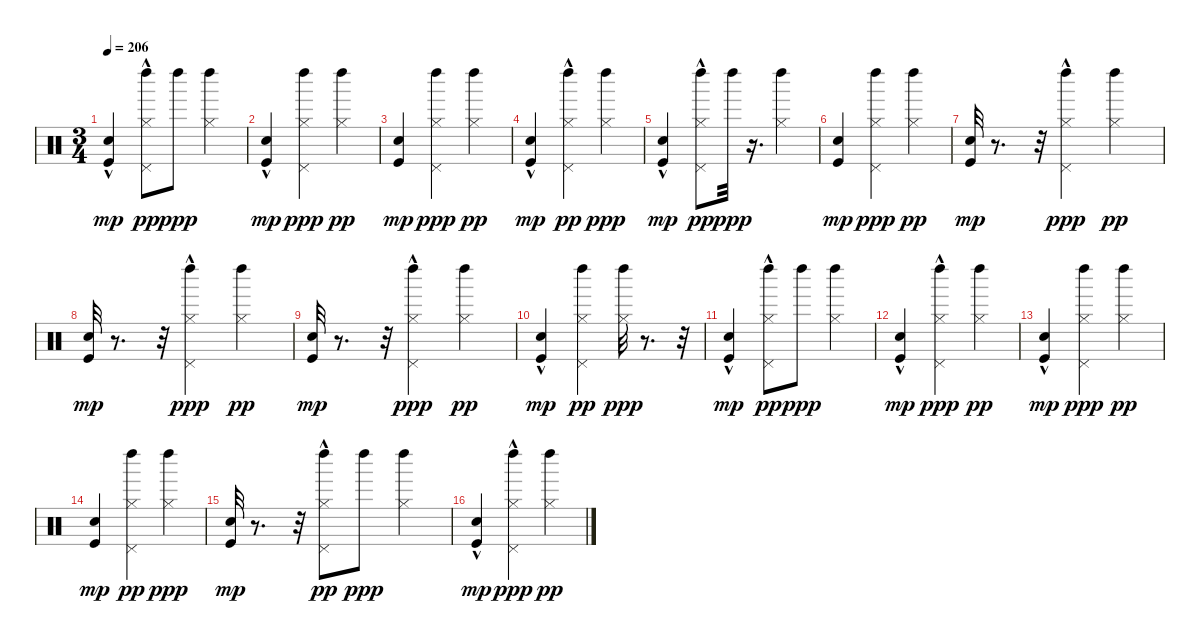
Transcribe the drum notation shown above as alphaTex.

\track "" {instrument percussion}
\staff {score}
\articulation defaults
\ts (3 4)
\tempo 206
\clef neutral
\ks c
("Kick (hit)"{hac} "Snare (hit)"{hac}).4{dy mp} ("Pedal Hi-Hat (hit)"{hac} "Hi-Hat (closed)" "Left Maraca (hit)").8{dy pp} "Left Maraca (hit)".8{dy ppp} ("Hi-Hat (closed)" "Left Maraca (hit)").4 |
("Kick (hit)"{hac} "Snare (hit)").4{dy mp} ("Pedal Hi-Hat (hit)" "Hi-Hat (closed)" "Left Maraca (hit)").4{dy ppp} ("Hi-Hat (closed)" "Left Maraca (hit)").4{dy pp} |
("Kick (hit)" "Snare (hit)").4{dy mp} ("Pedal Hi-Hat (hit)" "Hi-Hat (closed)" "Left Maraca (hit)").4{dy ppp} ("Hi-Hat (closed)" "Left Maraca (hit)").4{dy pp} |
("Kick (hit)"{hac} "Snare (hit)"{hac}).4{dy mp} ("Pedal Hi-Hat (hit)"{hac} "Hi-Hat (closed)" "Left Maraca (hit)").4{dy pp} ("Hi-Hat (closed)" "Left Maraca (hit)").4{dy ppp} |
("Kick (hit)" "Snare (hit)"{hac}).4{dy mp} ("Pedal Hi-Hat (hit)"{hac} "Hi-Hat (closed)" "Left Maraca (hit)").8{dy pp} "Left Maraca (hit)".32{dy ppp} r.16{d} ("Hi-Hat (closed)" "Left Maraca (hit)").4 |
("Kick (hit)" "Snare (hit)").4{dy mp} ("Pedal Hi-Hat (hit)" "Hi-Hat (closed)" "Left Maraca (hit)").4{dy ppp} ("Hi-Hat (closed)" "Left Maraca (hit)").4{dy pp} |
("Kick (hit)" "Snare (hit)").32{dy mp} r.8{d} r.32 ("Pedal Hi-Hat (hit)"{hac} "Hi-Hat (closed)" "Left Maraca (hit)").4{dy ppp} ("Hi-Hat (closed)" "Left Maraca (hit)").4{dy pp} |
("Kick (hit)" "Snare (hit)").32{dy mp} r.8{d} r.32 ("Pedal Hi-Hat (hit)"{hac} "Hi-Hat (closed)" "Left Maraca (hit)").4{dy ppp} ("Hi-Hat (closed)" "Left Maraca (hit)").4{dy pp} |
("Kick (hit)" "Snare (hit)").32{dy mp} r.8{d} r.32 ("Pedal Hi-Hat (hit)"{hac} "Hi-Hat (closed)" "Left Maraca (hit)").4{dy ppp} ("Hi-Hat (closed)" "Left Maraca (hit)").4{dy pp} |
("Kick (hit)"{hac} "Snare (hit)"{hac}).4{dy mp} ("Pedal Hi-Hat (hit)" "Hi-Hat (closed)" "Left Maraca (hit)").4{dy pp} ("Hi-Hat (closed)" "Left Maraca (hit)").32{dy ppp} r.8{d} r.32 |
("Kick (hit)" "Snare (hit)"{hac}).4{dy mp} ("Pedal Hi-Hat (hit)"{hac} "Hi-Hat (closed)" "Left Maraca (hit)").8{dy pp} "Left Maraca (hit)".8{dy ppp} ("Hi-Hat (closed)" "Left Maraca (hit)").4 |
("Kick (hit)" "Snare (hit)"{hac}).4{dy mp} ("Pedal Hi-Hat (hit)"{hac} "Hi-Hat (closed)" "Left Maraca (hit)").4{dy ppp} ("Hi-Hat (closed)" "Left Maraca (hit)").4{dy pp} |
("Kick (hit)" "Snare (hit)"{hac}).4{dy mp} ("Pedal Hi-Hat (hit)" "Hi-Hat (closed)" "Left Maraca (hit)").4{dy ppp} ("Hi-Hat (closed)" "Left Maraca (hit)").4{dy pp} |
("Kick (hit)" "Snare (hit)").4{dy mp} ("Pedal Hi-Hat (hit)" "Hi-Hat (closed)" "Left Maraca (hit)").4{dy pp} ("Hi-Hat (closed)" "Left Maraca (hit)").4{dy ppp} |
("Kick (hit)" "Snare (hit)").32{dy mp} r.8{d} r.32 ("Pedal Hi-Hat (hit)"{hac} "Hi-Hat (closed)" "Left Maraca (hit)").8{dy pp} "Left Maraca (hit)".8{dy ppp} ("Hi-Hat (closed)" "Left Maraca (hit)").4 |
("Kick (hit)" "Snare (hit)"{hac}).4{dy mp} ("Pedal Hi-Hat (hit)"{hac} "Hi-Hat (closed)" "Left Maraca (hit)").4{dy ppp} ("Hi-Hat (closed)" "Left Maraca (hit)").4{dy pp}
